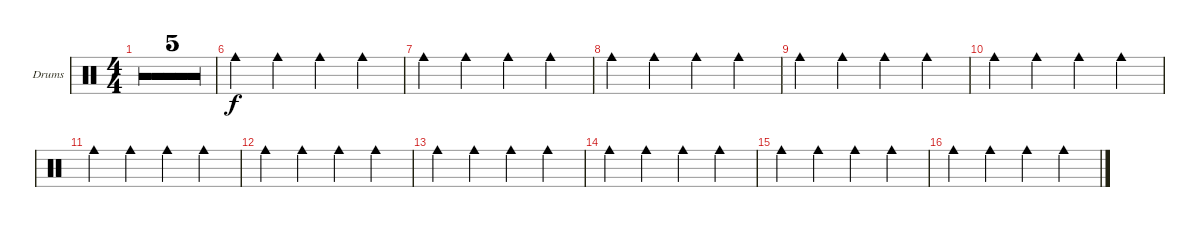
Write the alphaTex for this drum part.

\defaultSystemsLayout 4
\bracketExtendMode groupsimilarinstruments
\firstSystemTrackNameOrientation horizontal
\otherSystemsTrackNameOrientation horizontal
\track ("Cow Bell" "Drums") {multiBarRest instrument percussion}
\staff {score}
\articulation defaults
\ts (4 4)
\tempo 120
\clef neutral
\ks c
|
|
|
|
|
"Cowbell medium (hit)".4 "Cowbell medium (hit)".4 "Cowbell medium (hit)".4 "Cowbell medium (hit)".4 |
"Cowbell medium (hit)".4 "Cowbell medium (hit)".4 "Cowbell medium (hit)".4 "Cowbell medium (hit)".4 |
"Cowbell medium (hit)".4 "Cowbell medium (hit)".4 "Cowbell medium (hit)".4 "Cowbell medium (hit)".4 |
"Cowbell medium (hit)".4 "Cowbell medium (hit)".4 "Cowbell medium (hit)".4 "Cowbell medium (hit)".4 |
"Cowbell medium (hit)".4 "Cowbell medium (hit)".4 "Cowbell medium (hit)".4 "Cowbell medium (hit)".4 |
"Cowbell medium (hit)".4 "Cowbell medium (hit)".4 "Cowbell medium (hit)".4 "Cowbell medium (hit)".4 |
"Cowbell medium (hit)".4 "Cowbell medium (hit)".4 "Cowbell medium (hit)".4 "Cowbell medium (hit)".4 |
"Cowbell medium (hit)".4 "Cowbell medium (hit)".4 "Cowbell medium (hit)".4 "Cowbell medium (hit)".4 |
"Cowbell medium (hit)".4 "Cowbell medium (hit)".4 "Cowbell medium (hit)".4 "Cowbell medium (hit)".4 |
"Cowbell medium (hit)".4 "Cowbell medium (hit)".4 "Cowbell medium (hit)".4 "Cowbell medium (hit)".4 |
"Cowbell medium (hit)".4 "Cowbell medium (hit)".4 "Cowbell medium (hit)".4 "Cowbell medium (hit)".4
